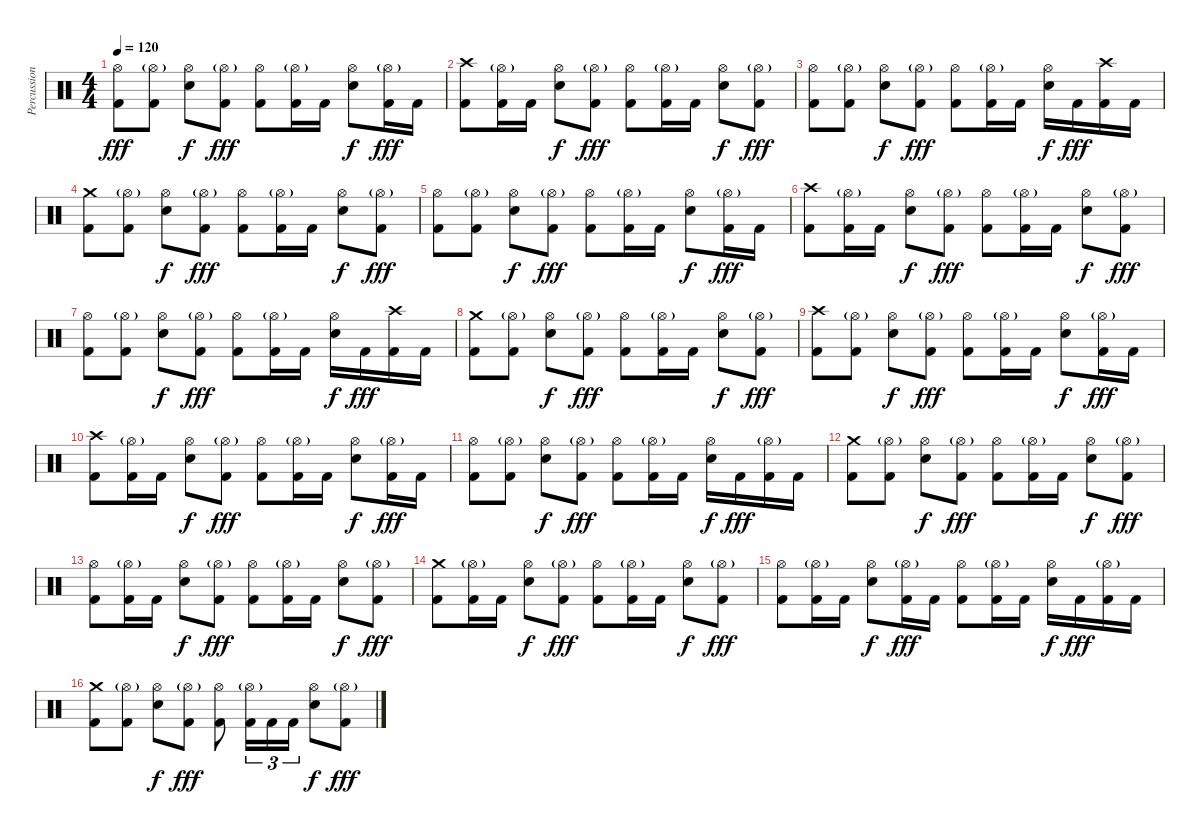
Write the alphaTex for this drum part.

\track ("Percussion" "Percussion") {instrument percussion}
\staff {score}
\articulation defaults
\ts (4 4)
\tempo 120
\clef neutral
\ks c
("Hi-Hat (open)" "Kick (hit) 2").8{dy fff} ("Hi-Hat (open)"{g} "Kick (hit) 2").8 ("Hi-Hat (open)" "Snare (hit) 2").8{dy f} ("Hi-Hat (open)"{g} "Kick (hit) 2").8{dy fff} ("Hi-Hat (open)" "Kick (hit) 2").8 ("Hi-Hat (open)"{g} "Kick (hit) 2").16 "Kick (hit) 2".16 ("Hi-Hat (open)" "Snare (hit) 2").8{dy f} ("Hi-Hat (open)"{g} "Kick (hit) 2").16{dy fff} "Kick (hit) 2".16 |
("Crash high (hit)" "Kick (hit) 2").8 ("Hi-Hat (open)"{g} "Kick (hit) 2").16 "Kick (hit) 2".16 ("Hi-Hat (open)" "Snare (hit) 2").8{dy f} ("Hi-Hat (open)"{g} "Kick (hit) 2").8{dy fff} ("Hi-Hat (open)" "Kick (hit) 2").8 ("Hi-Hat (open)"{g} "Kick (hit) 2").16 "Kick (hit) 2".16 ("Hi-Hat (open)" "Snare (hit) 2").8{dy f} ("Hi-Hat (open)"{g} "Kick (hit) 2").8{dy fff} |
("Hi-Hat (open)" "Kick (hit) 2").8 ("Hi-Hat (open)"{g} "Kick (hit) 2").8 ("Hi-Hat (open)" "Snare (hit) 2").8{dy f} ("Hi-Hat (open)"{g} "Kick (hit) 2").8{dy fff} ("Hi-Hat (open)" "Kick (hit) 2").8 ("Hi-Hat (open)"{g} "Kick (hit) 2").16 "Kick (hit) 2".16 ("Hi-Hat (open)" "Snare (hit) 2").16{dy f} "Kick (hit) 2".16{dy fff} ("Crash high (hit)" "Kick (hit) 2").16 "Kick (hit) 2".16 |
("Crash medium (hit)" "Kick (hit) 2").8 ("Hi-Hat (open)"{g} "Kick (hit) 2").8 ("Hi-Hat (open)" "Snare (hit) 2").8{dy f} ("Hi-Hat (open)"{g} "Kick (hit) 2").8{dy fff} ("Hi-Hat (open)" "Kick (hit) 2").8 ("Hi-Hat (open)"{g} "Kick (hit) 2").16 "Kick (hit) 2".16 ("Hi-Hat (open)" "Snare (hit) 2").8{dy f} ("Hi-Hat (open)"{g} "Kick (hit) 2").8{dy fff} |
("Hi-Hat (open)" "Kick (hit) 2").8 ("Hi-Hat (open)"{g} "Kick (hit) 2").8 ("Hi-Hat (open)" "Snare (hit) 2").8{dy f} ("Hi-Hat (open)"{g} "Kick (hit) 2").8{dy fff} ("Hi-Hat (open)" "Kick (hit) 2").8 ("Hi-Hat (open)"{g} "Kick (hit) 2").16 "Kick (hit) 2".16 ("Hi-Hat (open)" "Snare (hit) 2").8{dy f} ("Hi-Hat (open)"{g} "Kick (hit) 2").16{dy fff} "Kick (hit) 2".16 |
("Crash high (hit)" "Kick (hit) 2").8 ("Hi-Hat (open)"{g} "Kick (hit) 2").16 "Kick (hit) 2".16 ("Hi-Hat (open)" "Snare (hit) 2").8{dy f} ("Hi-Hat (open)"{g} "Kick (hit) 2").8{dy fff} ("Hi-Hat (open)" "Kick (hit) 2").8 ("Hi-Hat (open)"{g} "Kick (hit) 2").16 "Kick (hit) 2".16 ("Hi-Hat (open)" "Snare (hit) 2").8{dy f} ("Hi-Hat (open)"{g} "Kick (hit) 2").8{dy fff} |
("Hi-Hat (open)" "Kick (hit) 2").8 ("Hi-Hat (open)"{g} "Kick (hit) 2").8 ("Hi-Hat (open)" "Snare (hit) 2").8{dy f} ("Hi-Hat (open)"{g} "Kick (hit) 2").8{dy fff} ("Hi-Hat (open)" "Kick (hit) 2").8 ("Hi-Hat (open)"{g} "Kick (hit) 2").16 "Kick (hit) 2".16 ("Hi-Hat (open)" "Snare (hit) 2").16{dy f} "Kick (hit) 2".16{dy fff} ("Crash high (hit)" "Kick (hit) 2").16 "Kick (hit) 2".16 |
("Crash medium (hit)" "Kick (hit) 2").8 ("Hi-Hat (open)"{g} "Kick (hit) 2").8 ("Hi-Hat (open)" "Snare (hit) 2").8{dy f} ("Hi-Hat (open)"{g} "Kick (hit) 2").8{dy fff} ("Hi-Hat (open)" "Kick (hit) 2").8 ("Hi-Hat (open)"{g} "Kick (hit) 2").16 "Kick (hit) 2".16 ("Hi-Hat (open)" "Snare (hit) 2").8{dy f} ("Hi-Hat (open)"{g} "Kick (hit) 2").8{dy fff} |
("Crash high (hit)" "Kick (hit) 2").8 ("Hi-Hat (open)"{g} "Kick (hit) 2").8 ("Hi-Hat (open)" "Snare (hit) 2").8{dy f} ("Hi-Hat (open)"{g} "Kick (hit) 2").8{dy fff} ("Hi-Hat (open)" "Kick (hit) 2").8 ("Hi-Hat (open)"{g} "Kick (hit) 2").16 "Kick (hit) 2".16 ("Hi-Hat (open)" "Snare (hit) 2").8{dy f} ("Hi-Hat (open)"{g} "Kick (hit) 2").16{dy fff} "Kick (hit) 2".16 |
("Crash high (hit)" "Kick (hit) 2").8 ("Hi-Hat (open)"{g} "Kick (hit) 2").16 "Kick (hit) 2".16 ("Hi-Hat (open)" "Snare (hit) 2").8{dy f} ("Hi-Hat (open)"{g} "Kick (hit) 2").8{dy fff} ("Hi-Hat (open)" "Kick (hit) 2").8 ("Hi-Hat (open)"{g} "Kick (hit) 2").16 "Kick (hit) 2".16 ("Hi-Hat (open)" "Snare (hit) 2").8{dy f} ("Hi-Hat (open)"{g} "Kick (hit) 2").16{dy fff} "Kick (hit) 2".16 |
("Hi-Hat (open)" "Kick (hit) 2").8 ("Hi-Hat (open)"{g} "Kick (hit) 2").8 ("Hi-Hat (open)" "Snare (hit) 2").8{dy f} ("Hi-Hat (open)"{g} "Kick (hit) 2").8{dy fff} ("Hi-Hat (open)" "Kick (hit) 2").8 ("Hi-Hat (open)"{g} "Kick (hit) 2").16 "Kick (hit) 2".16 ("Hi-Hat (open)" "Snare (hit) 2").16{dy f} "Kick (hit) 2".16{dy fff} ("Hi-Hat (open)"{g} "Kick (hit) 2").16 "Kick (hit) 2".16 |
("Crash medium (hit)" "Kick (hit) 2").8 ("Hi-Hat (open)"{g} "Kick (hit) 2").8 ("Hi-Hat (open)" "Snare (hit) 2").8{dy f} ("Hi-Hat (open)"{g} "Kick (hit) 2").8{dy fff} ("Hi-Hat (open)" "Kick (hit) 2").8 ("Hi-Hat (open)"{g} "Kick (hit) 2").16 "Kick (hit) 2".16 ("Hi-Hat (open)" "Snare (hit) 2").8{dy f} ("Hi-Hat (open)"{g} "Kick (hit) 2").8{dy fff} |
("Hi-Hat (open)" "Kick (hit) 2").8 ("Hi-Hat (open)"{g} "Kick (hit) 2").16 "Kick (hit) 2".16 ("Hi-Hat (open)" "Snare (hit) 2").8{dy f} ("Hi-Hat (open)"{g} "Kick (hit) 2").8{dy fff} ("Hi-Hat (open)" "Kick (hit) 2").8 ("Hi-Hat (open)"{g} "Kick (hit) 2").16 "Kick (hit) 2".16 ("Hi-Hat (open)" "Snare (hit) 2").8{dy f} ("Hi-Hat (open)"{g} "Kick (hit) 2").8{dy fff} |
("Crash medium (hit)" "Kick (hit) 2").8 ("Hi-Hat (open)"{g} "Kick (hit) 2").16 "Kick (hit) 2".16 ("Hi-Hat (open)" "Snare (hit) 2").8{dy f} ("Hi-Hat (open)"{g} "Kick (hit) 2").8{dy fff} ("Hi-Hat (open)" "Kick (hit) 2").8 ("Hi-Hat (open)"{g} "Kick (hit) 2").16 "Kick (hit) 2".16 ("Hi-Hat (open)" "Snare (hit) 2").8{dy f} ("Hi-Hat (open)"{g} "Kick (hit) 2").8{dy fff} |
("Hi-Hat (open)" "Kick (hit) 2").8 ("Hi-Hat (open)"{g} "Kick (hit) 2").16 "Kick (hit) 2".16 ("Hi-Hat (open)" "Snare (hit) 2").8{dy f} ("Hi-Hat (open)"{g} "Kick (hit) 2").16{dy fff} "Kick (hit) 2".16 ("Hi-Hat (open)" "Kick (hit) 2").8 ("Hi-Hat (open)"{g} "Kick (hit) 2").16 "Kick (hit) 2".16 ("Hi-Hat (open)" "Snare (hit) 2").16{dy f} "Kick (hit) 2".16{dy fff} ("Hi-Hat (open)"{g} "Kick (hit) 2").16 "Kick (hit) 2".16 |
("Crash medium (hit)" "Kick (hit) 2").8 ("Hi-Hat (open)"{g} "Kick (hit) 2").8 ("Hi-Hat (open)" "Snare (hit) 2").8{dy f} ("Hi-Hat (open)"{g} "Kick (hit) 2").8{dy fff} ("Hi-Hat (open)" "Kick (hit) 2").8 ("Hi-Hat (open)"{g} "Kick (hit) 2").16{tu (3 2)} "Kick (hit) 2".16{tu (3 2)} "Kick (hit) 2".16{tu (3 2)} ("Hi-Hat (open)" "Snare (hit) 2").8{dy f} ("Hi-Hat (open)"{g} "Kick (hit) 2").8{dy fff}
